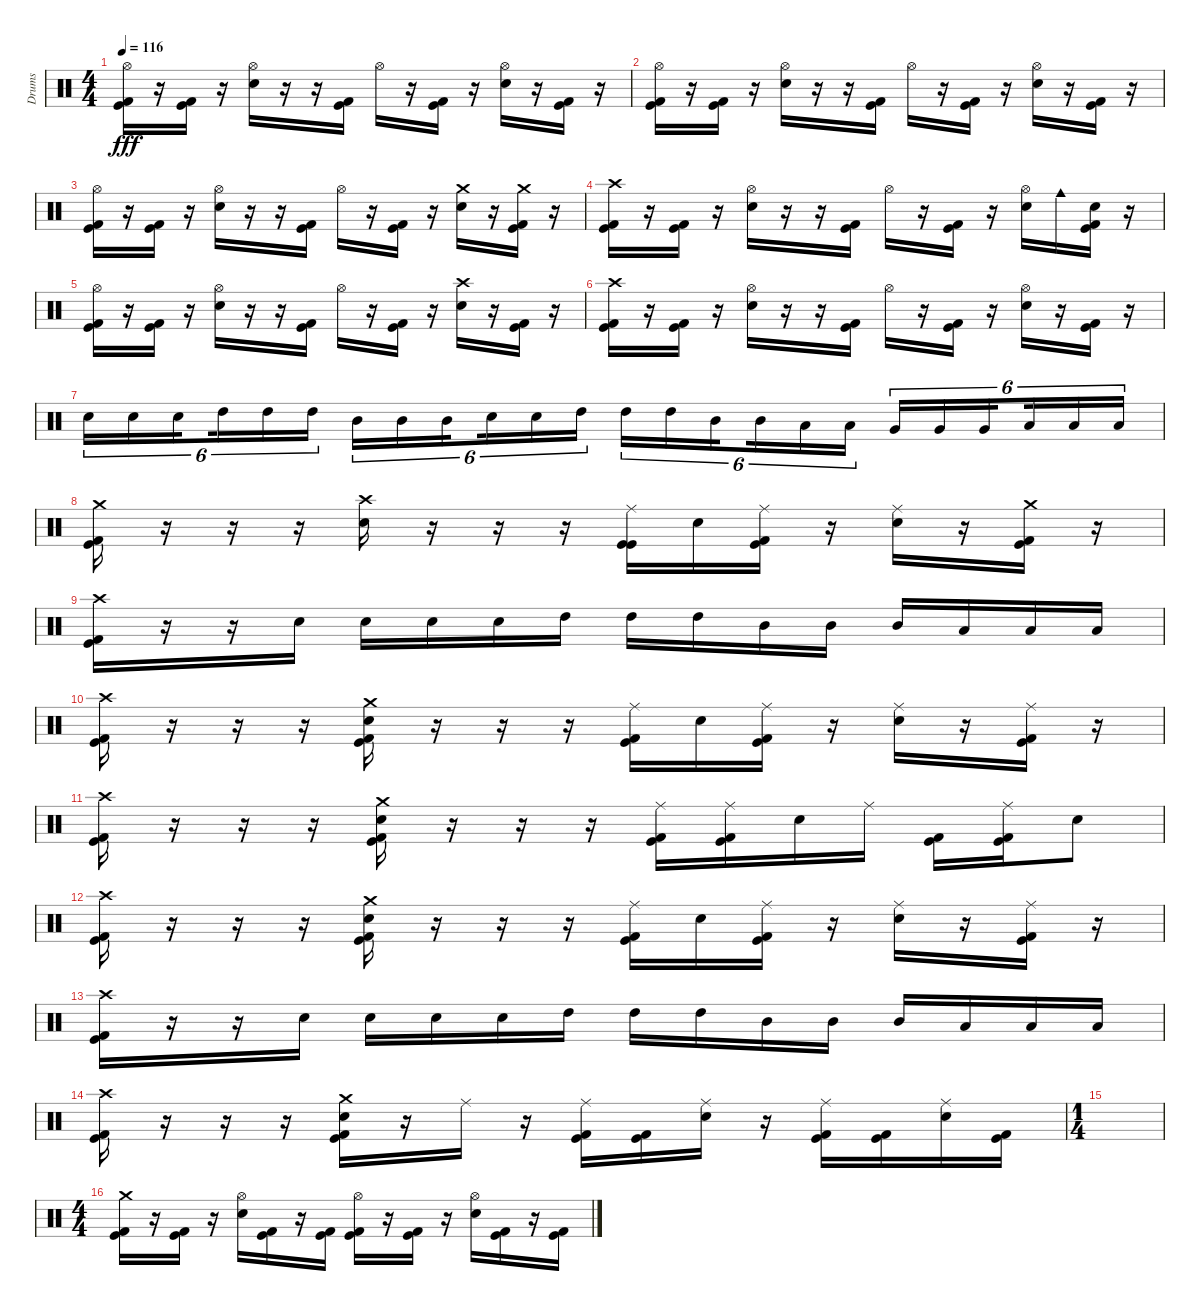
\track ("Drums" "Drums") {instrument percussion}
\staff {score}
\articulation defaults
\ts (4 4)
\tempo 116
\clef neutral
\ks c
("Hi-Hat (open)" "Kick (hit)" "Kick (hit) 2").16{dy fff} r.16 ("Kick (hit)" "Kick (hit) 2").16 r.16 ("Hi-Hat (open)" "Snare (hit) 2").16 r.16 r.16 ("Kick (hit)" "Kick (hit) 2").16 "Hi-Hat (open)".16 r.16 ("Kick (hit)" "Kick (hit) 2").16 r.16 ("Hi-Hat (open)" "Snare (hit) 2").16 r.16 ("Kick (hit)" "Kick (hit) 2").16 r.16 |
("Hi-Hat (open)" "Kick (hit)" "Kick (hit) 2").16 r.16 ("Kick (hit)" "Kick (hit) 2").16 r.16 ("Hi-Hat (open)" "Snare (hit) 2").16 r.16 r.16 ("Kick (hit)" "Kick (hit) 2").16 "Hi-Hat (open)".16 r.16 ("Kick (hit)" "Kick (hit) 2").16 r.16 ("Hi-Hat (open)" "Snare (hit) 2").16 r.16 ("Kick (hit)" "Kick (hit) 2").16 r.16 |
("Hi-Hat (open)" "Kick (hit)" "Kick (hit) 2").16 r.16 ("Kick (hit)" "Kick (hit) 2").16 r.16 ("Hi-Hat (open)" "Snare (hit) 2").16 r.16 r.16 ("Kick (hit)" "Kick (hit) 2").16 "Hi-Hat (open)".16 r.16 ("Kick (hit)" "Kick (hit) 2").16 r.16 ("Crash medium (hit)" "Snare (hit) 2").16 r.16 ("Crash medium (hit)" "Kick (hit)" "Kick (hit) 2").16 r.16 |
("Crash high (hit)" "Kick (hit)" "Kick (hit) 2").16 r.16 ("Kick (hit)" "Kick (hit) 2").16 r.16 ("Hi-Hat (open)" "Snare (hit) 2").16 r.16 r.16 ("Kick (hit)" "Kick (hit) 2").16 "Hi-Hat (open)".16 r.16 ("Kick (hit)" "Kick (hit) 2").16 r.16 ("Hi-Hat (open)" "Snare (hit) 2").16 "Cowbell medium (hit)".16 ("Snare (hit) 2" "Kick (hit)" "Kick (hit) 2").16 r.16 |
("Hi-Hat (open)" "Kick (hit)" "Kick (hit) 2").16 r.16 ("Kick (hit)" "Kick (hit) 2").16 r.16 ("Hi-Hat (open)" "Snare (hit) 2").16 r.16 r.16 ("Kick (hit)" "Kick (hit) 2").16 "Hi-Hat (open)".16 r.16 ("Kick (hit)" "Kick (hit) 2").16 r.16 ("Crash high (hit)" "Snare (hit) 2").16 r.16 ("Kick (hit)" "Kick (hit) 2").16 r.16 |
("Crash high (hit)" "Kick (hit)" "Kick (hit) 2").16 r.16 ("Kick (hit)" "Kick (hit) 2").16 r.16 ("Hi-Hat (open)" "Snare (hit) 2").16 r.16 r.16 ("Kick (hit)" "Kick (hit) 2").16 "Hi-Hat (open)".16 r.16 ("Kick (hit)" "Kick (hit) 2").16 r.16 ("Hi-Hat (open)" "Snare (hit) 2").16 r.16 ("Kick (hit)" "Kick (hit) 2").16 r.16 |
"Snare (hit) 2".16{tu (6 4)} "Snare (hit) 2".16{tu (6 4)} "Snare (hit) 2".16{tu (6 4) beam splitsecondary} "High Tom (hit)".16{tu (6 4)} "High Tom (hit)".16{tu (6 4)} "High Tom (hit)".16{tu (6 4)} "Mid Tom (hit)".16{tu (6 4)} "Mid Tom (hit)".16{tu (6 4)} "Mid Tom (hit)".16{tu (6 4) beam splitsecondary} "Snare (hit) 2".16{tu (6 4)} "Snare (hit) 2".16{tu (6 4)} "High Tom (hit)".16{tu (6 4)} "High Tom (hit)".16{tu (6 4)} "High Tom (hit)".16{tu (6 4)} "Mid Tom (hit)".16{tu (6 4) beam splitsecondary} "Mid Tom (hit)".16{tu (6 4)} "Low Tom (hit)".16{tu (6 4)} "Low Tom (hit)".16{tu (6 4)} "Very Low Tom (hit)".16{tu (6 4)} "Very Low Tom (hit)".16{tu (6 4)} "Very Low Tom (hit)".16{tu (6 4) beam splitsecondary} "Low Floor Tom (hit)".16{tu (6 4)} "Low Floor Tom (hit)".16{tu (6 4)} "Low Floor Tom (hit)".16{tu (6 4)} |
("Crash medium (hit)" "Kick (hit)" "Kick (hit) 2").16 r.16 r.16 r.16 ("Crash high (hit)" "Snare (hit) 2").16 r.16 r.16 r.16 ("Ride (middle)" "Kick (hit)" "Kick (hit)").16 "Snare (hit) 2".16 ("Ride (middle)" "Kick (hit)" "Kick (hit) 2").16 r.16 ("Ride (middle)" "Snare (hit) 2").16 r.16 ("Crash medium (hit)" "Kick (hit)" "Kick (hit) 2").16 r.16 |
("Crash high (hit)" "Kick (hit)" "Kick (hit) 2").16 r.16 r.16 "Snare (hit) 2".16 "Snare (hit) 2".16 "Snare (hit) 2".16 "Snare (hit) 2".16 "High Tom (hit)".16 "High Tom (hit)".16 "High Tom (hit)".16 "Mid Tom (hit)".16 "Mid Tom (hit)".16 "Mid Tom (hit)".16 "Low Tom (hit)".16 "Low Tom (hit)".16 "Low Tom (hit)".16 |
("Crash high (hit)" "Kick (hit)" "Kick (hit) 2").16 r.16 r.16 r.16 ("Crash medium (hit)" "Snare (hit) 2" "Kick (hit)" "Kick (hit) 2").16 r.16 r.16 r.16 ("Ride (middle)" "Kick (hit)" "Kick (hit) 2").16 "Snare (hit) 2".16 ("Ride (middle)" "Kick (hit)" "Kick (hit) 2").16 r.16 ("Ride (middle)" "Snare (hit) 2").16 r.16 ("Ride (middle)" "Kick (hit)" "Kick (hit) 2").16 r.16 |
("Crash high (hit)" "Kick (hit)" "Kick (hit) 2").16 r.16 r.16 r.16 ("Crash medium (hit)" "Snare (hit) 2" "Kick (hit)" "Kick (hit) 2").16 r.16 r.16 r.16 ("Ride (middle)" "Kick (hit)" "Kick (hit) 2").16 ("Ride (middle)" "Kick (hit)" "Kick (hit) 2").16 "Snare (hit) 2".16 "Ride (middle)".16 ("Kick (hit)" "Kick (hit) 2").16 ("Ride (middle)" "Kick (hit)" "Kick (hit) 2").16 "Snare (hit) 2".8 |
("Crash high (hit)" "Kick (hit)" "Kick (hit) 2").16 r.16 r.16 r.16 ("Crash medium (hit)" "Snare (hit) 2" "Kick (hit)" "Kick (hit) 2").16 r.16 r.16 r.16 ("Ride (middle)" "Kick (hit)" "Kick (hit) 2").16 "Snare (hit) 2".16 ("Ride (middle)" "Kick (hit)" "Kick (hit) 2").16 r.16 ("Ride (middle)" "Snare (hit) 2").16 r.16 ("Ride (middle)" "Kick (hit)" "Kick (hit) 2").16 r.16 |
("Crash high (hit)" "Kick (hit)" "Kick (hit) 2").16 r.16 r.16 "Snare (hit) 2".16 "Snare (hit) 2".16 "Snare (hit) 2".16 "Snare (hit) 2".16 "High Tom (hit)".16 "High Tom (hit)".16 "High Tom (hit)".16 "Mid Tom (hit)".16 "Mid Tom (hit)".16 "Mid Tom (hit)".16 "Low Tom (hit)".16 "Low Tom (hit)".16 "Low Tom (hit)".16 |
("Crash high (hit)" "Kick (hit)" "Kick (hit) 2").16 r.16 r.16 r.16 ("Crash medium (hit)" "Snare (hit) 2" "Kick (hit)" "Kick (hit) 2").16 r.16 "Ride (middle)".16 r.16 ("Ride (middle)" "Kick (hit)" "Kick (hit) 2").16 ("Kick (hit)" "Kick (hit) 2").16 ("Ride (middle)" "Snare (hit) 2").16 r.16 ("Ride (middle)" "Kick (hit)" "Kick (hit) 2").16 ("Kick (hit)" "Kick (hit) 2").16 ("Ride (middle)" "Snare (hit) 2").16 ("Kick (hit)" "Kick (hit) 2").16 |
\ts (1 4)
|
\ts (4 4)
("Crash medium (hit)" "Kick (hit)" "Kick (hit) 2").16 r.16 ("Kick (hit)" "Kick (hit) 2").16 r.16 ("Hi-Hat (open)" "Snare (hit) 2").16 ("Kick (hit)" "Kick (hit) 2").16 r.16 ("Kick (hit)" "Kick (hit) 2").16 ("Hi-Hat (open)" "Kick (hit)" "Kick (hit) 2").16 r.16 ("Kick (hit)" "Kick (hit) 2").16 r.16 ("Hi-Hat (open)" "Snare (hit) 2").16 ("Kick (hit)" "Kick (hit) 2").16 r.16 ("Kick (hit)" "Kick (hit) 2").16
